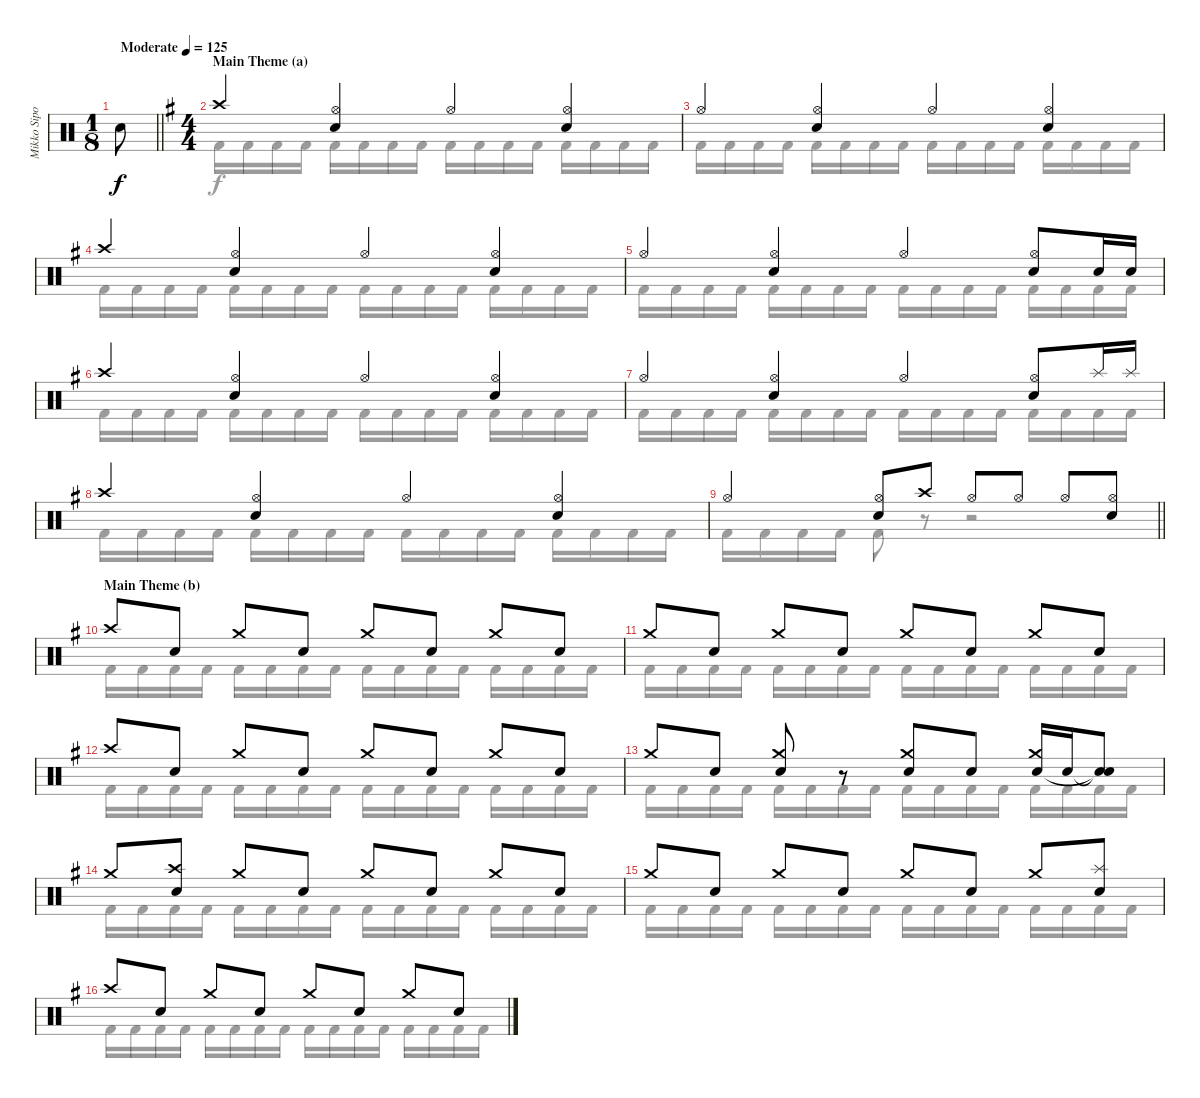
\track ("Mikko Sipola (drums)" "Mikko Sipo") {instrument percussion}
\staff {score}
\articulation defaults
\voice
\ts (1 8)
\tempo (125 "Moderate")
\clef neutral
\barLineRight lightlight
\ks c "Electric Snare (hit)".8{dy f}
|
\ts (4 4)
\section ("" "Main Theme (a)")
\ks g "Crash high (hit)".4
("Hi-Hat (open)" "Electric Snare (hit)").4 "Hi-Hat (open)".4 ("Hi-Hat (open)" "Electric Snare (hit)").4 |
"Hi-Hat (open)".4 ("Hi-Hat (open)" "Electric Snare (hit)").4 "Hi-Hat (open)".4 ("Hi-Hat (open)" "Electric Snare (hit)").4 |
"Crash high (hit)".4 ("Hi-Hat (open)" "Electric Snare (hit)").4 "Hi-Hat (open)".4 ("Hi-Hat (open)" "Electric Snare (hit)").4 |
"Hi-Hat (open)".4 ("Hi-Hat (open)" "Electric Snare (hit)").4 "Hi-Hat (open)".4 ("Hi-Hat (open)" "Electric Snare (hit)").8 "Electric Snare (hit)".16 "Electric Snare (hit)".16 |
"Crash high (hit)".4 ("Hi-Hat (open)" "Electric Snare (hit)").4 "Hi-Hat (open)".4 ("Hi-Hat (open)" "Electric Snare (hit)").4 |
"Hi-Hat (open)".4 ("Hi-Hat (open)" "Electric Snare (hit)").4 "Hi-Hat (open)".4 ("Hi-Hat (open)" "Electric Snare (hit)").8 "Splash (hit)".16 "Splash (hit)".16 |
"Crash high (hit)".4 ("Hi-Hat (open)" "Electric Snare (hit)").4 "Hi-Hat (open)".4 ("Hi-Hat (open)" "Electric Snare (hit)").4 |
\barLineRight lightlight "Hi-Hat (open)".4
("Hi-Hat (open)" "Electric Snare (hit)").8 "Crash high (hit)".8 "Hi-Hat (open)".8 "Hi-Hat (open)".8 "Hi-Hat (open)".8 ("Hi-Hat (open)" "Electric Snare (hit)").8 |
\section ("" "Main Theme (b)")
"Crash high (hit)".8 "Electric Snare (hit)".8 "Crash medium (hit)".8 "Electric Snare (hit)".8 "Crash medium (hit)".8 "Electric Snare (hit)".8 "Crash medium (hit)".8 "Electric Snare (hit)".8 |
"Crash medium (hit)".8 "Electric Snare (hit)".8 "Crash medium (hit)".8 "Electric Snare (hit)".8 "Crash medium (hit)".8 "Electric Snare (hit)".8 "Crash medium (hit)".8 "Electric Snare (hit)".8 |
"Crash high (hit)".8 "Electric Snare (hit)".8 "Crash medium (hit)".8 "Electric Snare (hit)".8 "Crash medium (hit)".8 "Electric Snare (hit)".8 "Crash medium (hit)".8 "Electric Snare (hit)".8 |
"Crash medium (hit)".8 "Electric Snare (hit)".8 ("Crash medium (hit)" "Electric Snare (hit)").8 r.8 ("Crash medium (hit)" "Electric Snare (hit)").8 "Electric Snare (hit)".8 ("Crash medium (hit)" "Electric Snare (hit)").16 "Electric Snare (hit)".16 ("Snare (hit)"{t} "Electric Snare (hit)"{t}).8 |
"Crash medium (hit)".8 ("Crash high (hit)" "Electric Snare (hit)").8 "Crash medium (hit)".8 "Electric Snare (hit)".8 "Crash medium (hit)".8 "Electric Snare (hit)".8 "Crash medium (hit)".8 "Electric Snare (hit)".8 |
"Crash medium (hit)".8 "Electric Snare (hit)".8 "Crash medium (hit)".8 "Electric Snare (hit)".8 "Crash medium (hit)".8 "Electric Snare (hit)".8 "Crash medium (hit)".8 ("Splash (hit)" "Electric Snare (hit)").8 |
"Crash high (hit)".8 "Electric Snare (hit)".8 "Crash medium (hit)".8 "Electric Snare (hit)".8 "Crash medium (hit)".8 "Electric Snare (hit)".8 "Crash medium (hit)".8 "Electric Snare (hit)".8
\voice
\clef neutral
\ottava regular
\simile none
\barLineRight lightlight
\ks c
|
\ks g "Kick (hit) 2".16 "Kick (hit) 2".16 "Kick (hit) 2".16 "Kick (hit) 2".16 "Kick (hit) 2".16 "Kick (hit) 2".16 "Kick (hit) 2".16 "Kick (hit) 2".16 "Kick (hit) 2".16 "Kick (hit) 2".16 "Kick (hit) 2".16 "Kick (hit) 2".16 "Kick (hit) 2".16 "Kick (hit) 2".16 "Kick (hit) 2".16 "Kick (hit) 2".16
|
"Kick (hit) 2".16 "Kick (hit) 2".16 "Kick (hit) 2".16 "Kick (hit) 2".16 "Kick (hit) 2".16 "Kick (hit) 2".16 "Kick (hit) 2".16 "Kick (hit) 2".16 "Kick (hit) 2".16 "Kick (hit) 2".16 "Kick (hit) 2".16 "Kick (hit) 2".16 "Kick (hit) 2".16 "Kick (hit) 2".16 "Kick (hit) 2".16 "Kick (hit) 2".16 |
"Kick (hit) 2".16 "Kick (hit) 2".16 "Kick (hit) 2".16 "Kick (hit) 2".16 "Kick (hit) 2".16 "Kick (hit) 2".16 "Kick (hit) 2".16 "Kick (hit) 2".16 "Kick (hit) 2".16 "Kick (hit) 2".16 "Kick (hit) 2".16 "Kick (hit) 2".16 "Kick (hit) 2".16 "Kick (hit) 2".16 "Kick (hit) 2".16 "Kick (hit) 2".16 |
"Kick (hit) 2".16 "Kick (hit) 2".16 "Kick (hit) 2".16 "Kick (hit) 2".16 "Kick (hit) 2".16 "Kick (hit) 2".16 "Kick (hit) 2".16 "Kick (hit) 2".16 "Kick (hit) 2".16 "Kick (hit) 2".16 "Kick (hit) 2".16 "Kick (hit) 2".16 "Kick (hit) 2".16 "Kick (hit) 2".16 "Kick (hit) 2".16 "Kick (hit) 2".16 |
"Kick (hit) 2".16 "Kick (hit) 2".16 "Kick (hit) 2".16 "Kick (hit) 2".16 "Kick (hit) 2".16 "Kick (hit) 2".16 "Kick (hit) 2".16 "Kick (hit) 2".16 "Kick (hit) 2".16 "Kick (hit) 2".16 "Kick (hit) 2".16 "Kick (hit) 2".16 "Kick (hit) 2".16 "Kick (hit) 2".16 "Kick (hit) 2".16 "Kick (hit) 2".16 |
"Kick (hit) 2".16 "Kick (hit) 2".16 "Kick (hit) 2".16 "Kick (hit) 2".16 "Kick (hit) 2".16 "Kick (hit) 2".16 "Kick (hit) 2".16 "Kick (hit) 2".16 "Kick (hit) 2".16 "Kick (hit) 2".16 "Kick (hit) 2".16 "Kick (hit) 2".16 "Kick (hit) 2".16 "Kick (hit) 2".16 "Kick (hit) 2".16 "Kick (hit) 2".16 |
"Kick (hit) 2".16 "Kick (hit) 2".16 "Kick (hit) 2".16 "Kick (hit) 2".16 "Kick (hit) 2".16 "Kick (hit) 2".16 "Kick (hit) 2".16 "Kick (hit) 2".16 "Kick (hit) 2".16 "Kick (hit) 2".16 "Kick (hit) 2".16 "Kick (hit) 2".16 "Kick (hit) 2".16 "Kick (hit) 2".16 "Kick (hit) 2".16 "Kick (hit) 2".16 |
\barLineRight lightlight "Kick (hit) 2".16 "Kick (hit) 2".16 "Kick (hit) 2".16 "Kick (hit) 2".16 "Kick (hit) 2".8
r.8 r.2 |
"Kick (hit) 2".16 "Kick (hit) 2".16 "Kick (hit) 2".16 "Kick (hit) 2".16 "Kick (hit) 2".16 "Kick (hit) 2".16 "Kick (hit) 2".16 "Kick (hit) 2".16 "Kick (hit) 2".16 "Kick (hit) 2".16 "Kick (hit) 2".16 "Kick (hit) 2".16 "Kick (hit) 2".16 "Kick (hit) 2".16 "Kick (hit) 2".16 "Kick (hit) 2".16 |
"Kick (hit) 2".16 "Kick (hit) 2".16 "Kick (hit) 2".16 "Kick (hit) 2".16 "Kick (hit) 2".16 "Kick (hit) 2".16 "Kick (hit) 2".16 "Kick (hit) 2".16 "Kick (hit) 2".16 "Kick (hit) 2".16 "Kick (hit) 2".16 "Kick (hit) 2".16 "Kick (hit) 2".16 "Kick (hit) 2".16 "Kick (hit) 2".16 "Kick (hit) 2".16 |
"Kick (hit) 2".16 "Kick (hit) 2".16 "Kick (hit) 2".16 "Kick (hit) 2".16 "Kick (hit) 2".16 "Kick (hit) 2".16 "Kick (hit) 2".16 "Kick (hit) 2".16 "Kick (hit) 2".16 "Kick (hit) 2".16 "Kick (hit) 2".16 "Kick (hit) 2".16 "Kick (hit) 2".16 "Kick (hit) 2".16 "Kick (hit) 2".16 "Kick (hit) 2".16 |
"Kick (hit) 2".16 "Kick (hit) 2".16 "Kick (hit) 2".16 "Kick (hit) 2".16 "Kick (hit) 2".16 "Kick (hit) 2".16 "Kick (hit) 2".16 "Kick (hit) 2".16 "Kick (hit) 2".16 "Kick (hit) 2".16 "Kick (hit) 2".16 "Kick (hit) 2".16 "Kick (hit) 2".16 "Kick (hit) 2".16 "Kick (hit) 2".16 "Kick (hit) 2".16 |
"Kick (hit) 2".16 "Kick (hit) 2".16 "Kick (hit) 2".16 "Kick (hit) 2".16 "Kick (hit) 2".16 "Kick (hit) 2".16 "Kick (hit) 2".16 "Kick (hit) 2".16 "Kick (hit) 2".16 "Kick (hit) 2".16 "Kick (hit) 2".16 "Kick (hit) 2".16 "Kick (hit) 2".16 "Kick (hit) 2".16 "Kick (hit) 2".16 "Kick (hit) 2".16 |
"Kick (hit) 2".16 "Kick (hit) 2".16 "Kick (hit) 2".16 "Kick (hit) 2".16 "Kick (hit) 2".16 "Kick (hit) 2".16 "Kick (hit) 2".16 "Kick (hit) 2".16 "Kick (hit) 2".16 "Kick (hit) 2".16 "Kick (hit) 2".16 "Kick (hit) 2".16 "Kick (hit) 2".16 "Kick (hit) 2".16 "Kick (hit) 2".16 "Kick (hit) 2".16 |
"Kick (hit) 2".16 "Kick (hit) 2".16 "Kick (hit) 2".16 "Kick (hit) 2".16 "Kick (hit) 2".16 "Kick (hit) 2".16 "Kick (hit) 2".16 "Kick (hit) 2".16 "Kick (hit) 2".16 "Kick (hit) 2".16 "Kick (hit) 2".16 "Kick (hit) 2".16 "Kick (hit) 2".16 "Kick (hit) 2".16 "Kick (hit) 2".16 "Kick (hit) 2".16
